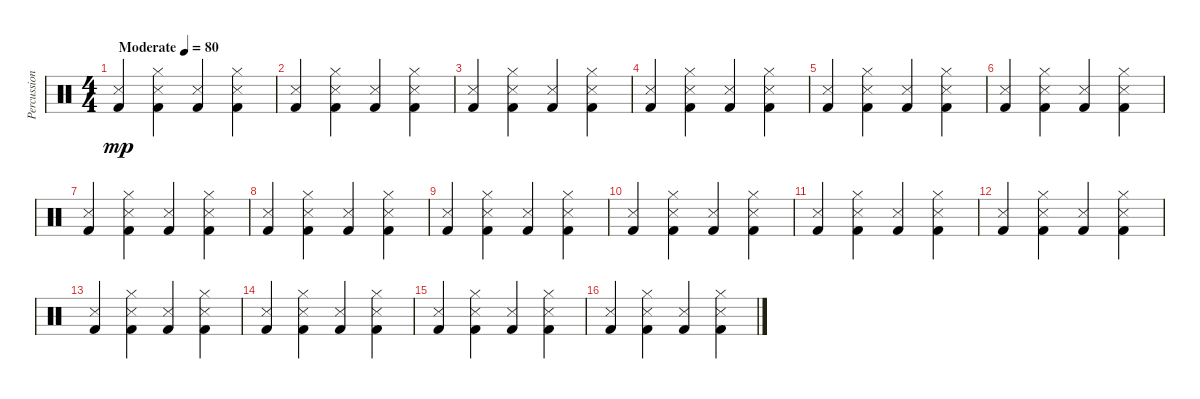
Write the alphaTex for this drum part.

\track ("Percussion" "Percussion") {instrument percussion}
\staff {score}
\articulation defaults
\ts (4 4)
\tempo (80 "Moderate")
\clef neutral
\ks c
("Snare (side stick) 3" "Kick (hit) 2").4{dy mp} ("Snare (side stick) 3" "Hi-Hat (closed)" "Kick (hit) 2").4 ("Snare (side stick) 3" "Kick (hit) 2").4 ("Snare (side stick) 3" "Hi-Hat (closed)" "Kick (hit) 2").4 |
("Snare (side stick) 3" "Kick (hit) 2").4 ("Snare (side stick) 3" "Hi-Hat (closed)" "Kick (hit) 2").4 ("Snare (side stick) 3" "Kick (hit) 2").4 ("Snare (side stick) 3" "Hi-Hat (closed)" "Kick (hit) 2").4 |
("Snare (side stick) 3" "Kick (hit) 2").4 ("Snare (side stick) 3" "Hi-Hat (closed)" "Kick (hit) 2").4 ("Snare (side stick) 3" "Kick (hit) 2").4 ("Snare (side stick) 3" "Hi-Hat (closed)" "Kick (hit) 2").4 |
("Snare (side stick) 3" "Kick (hit) 2").4 ("Snare (side stick) 3" "Hi-Hat (closed)" "Kick (hit) 2").4 ("Snare (side stick) 3" "Kick (hit) 2").4 ("Snare (side stick) 3" "Hi-Hat (closed)" "Kick (hit) 2").4 |
("Snare (side stick) 3" "Kick (hit) 2").4 ("Snare (side stick) 3" "Hi-Hat (closed)" "Kick (hit) 2").4 ("Snare (side stick) 3" "Kick (hit) 2").4 ("Snare (side stick) 3" "Hi-Hat (closed)" "Kick (hit) 2").4 |
("Snare (side stick) 3" "Kick (hit) 2").4 ("Snare (side stick) 3" "Hi-Hat (closed)" "Kick (hit) 2").4 ("Snare (side stick) 3" "Kick (hit) 2").4 ("Snare (side stick) 3" "Hi-Hat (closed)" "Kick (hit) 2").4 |
("Snare (side stick) 3" "Kick (hit) 2").4 ("Snare (side stick) 3" "Hi-Hat (closed)" "Kick (hit) 2").4 ("Snare (side stick) 3" "Kick (hit) 2").4 ("Snare (side stick) 3" "Hi-Hat (closed)" "Kick (hit) 2").4 |
("Snare (side stick) 3" "Kick (hit) 2").4 ("Snare (side stick) 3" "Hi-Hat (closed)" "Kick (hit) 2").4 ("Snare (side stick) 3" "Kick (hit) 2").4 ("Snare (side stick) 3" "Hi-Hat (closed)" "Kick (hit) 2").4 |
("Snare (side stick) 3" "Kick (hit) 2").4 ("Snare (side stick) 3" "Hi-Hat (closed)" "Kick (hit) 2").4 ("Snare (side stick) 3" "Kick (hit) 2").4 ("Snare (side stick) 3" "Hi-Hat (closed)" "Kick (hit) 2").4 |
("Snare (side stick) 3" "Kick (hit) 2").4 ("Snare (side stick) 3" "Hi-Hat (closed)" "Kick (hit) 2").4 ("Snare (side stick) 3" "Kick (hit) 2").4 ("Snare (side stick) 3" "Hi-Hat (closed)" "Kick (hit) 2").4 |
("Snare (side stick) 3" "Kick (hit) 2").4 ("Snare (side stick) 3" "Hi-Hat (closed)" "Kick (hit) 2").4 ("Snare (side stick) 3" "Kick (hit) 2").4 ("Snare (side stick) 3" "Hi-Hat (closed)" "Kick (hit) 2").4 |
("Snare (side stick) 3" "Kick (hit) 2").4 ("Snare (side stick) 3" "Hi-Hat (closed)" "Kick (hit) 2").4 ("Snare (side stick) 3" "Kick (hit) 2").4 ("Snare (side stick) 3" "Hi-Hat (closed)" "Kick (hit) 2").4 |
("Snare (side stick) 3" "Kick (hit) 2").4 ("Snare (side stick) 3" "Hi-Hat (closed)" "Kick (hit) 2").4 ("Snare (side stick) 3" "Kick (hit) 2").4 ("Snare (side stick) 3" "Hi-Hat (closed)" "Kick (hit) 2").4 |
("Snare (side stick) 3" "Kick (hit) 2").4 ("Snare (side stick) 3" "Hi-Hat (closed)" "Kick (hit) 2").4 ("Snare (side stick) 3" "Kick (hit) 2").4 ("Snare (side stick) 3" "Hi-Hat (closed)" "Kick (hit) 2").4 |
("Snare (side stick) 3" "Kick (hit) 2").4 ("Snare (side stick) 3" "Hi-Hat (closed)" "Kick (hit) 2").4 ("Snare (side stick) 3" "Kick (hit) 2").4 ("Snare (side stick) 3" "Hi-Hat (closed)" "Kick (hit) 2").4 |
("Snare (side stick) 3" "Kick (hit) 2").4 ("Snare (side stick) 3" "Hi-Hat (closed)" "Kick (hit) 2").4 ("Snare (side stick) 3" "Kick (hit) 2").4 ("Snare (side stick) 3" "Hi-Hat (closed)" "Kick (hit) 2").4
